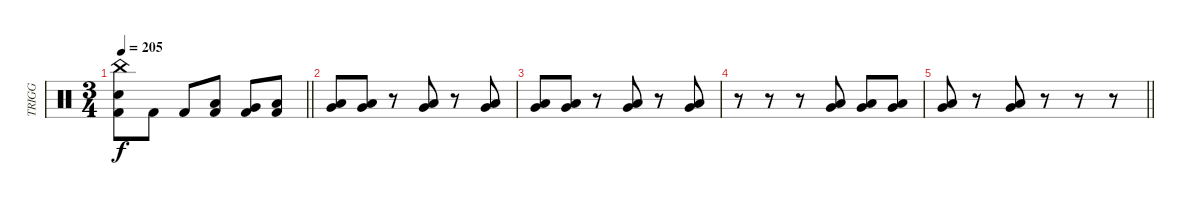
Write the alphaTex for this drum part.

\track ("TRIGG" "TRIGG") {instrument percussion}
\staff {score}
\articulation defaults
\ts (3 4)
\tempo 205
\clef neutral
\barLineRight lightlight
\ks c
("China (hit)" "Electric Snare (hit)" "Kick (hit) 2").8{dy f} "Kick (hit) 2".8 "Kick (hit) 2".8 ("Low Tom (hit)" "Kick (hit) 2").8 ("Very Low Tom (hit)" "Kick (hit) 2").8 ("Low Floor Tom (hit)" "Kick (hit) 2").8 |
("Very Low Tom (hit)" "Low Tom (hit)").8 ("Very Low Tom (hit)" "Low Tom (hit)").8 r.8 ("Low Tom (hit)" "Very Low Tom (hit)").8 r.8 ("Low Tom (hit)" "Very Low Tom (hit)").8 |
("Low Tom (hit)" "Very Low Tom (hit)").8 ("Low Tom (hit)" "Very Low Tom (hit)").8 r.8 ("Low Tom (hit)" "Very Low Tom (hit)").8 r.8 ("Low Tom (hit)" "Very Low Tom (hit)").8 |
r.8 r.8 r.8 ("Low Tom (hit)" "Very Low Tom (hit)").8 ("Low Tom (hit)" "Very Low Tom (hit)").8 ("Low Tom (hit)" "Very Low Tom (hit)").8 |
\barLineRight lightlight
("Low Tom (hit)" "Very Low Tom (hit)").8 r.8 ("Low Tom (hit)" "Very Low Tom (hit)").8 r.8 r.8 r.8
